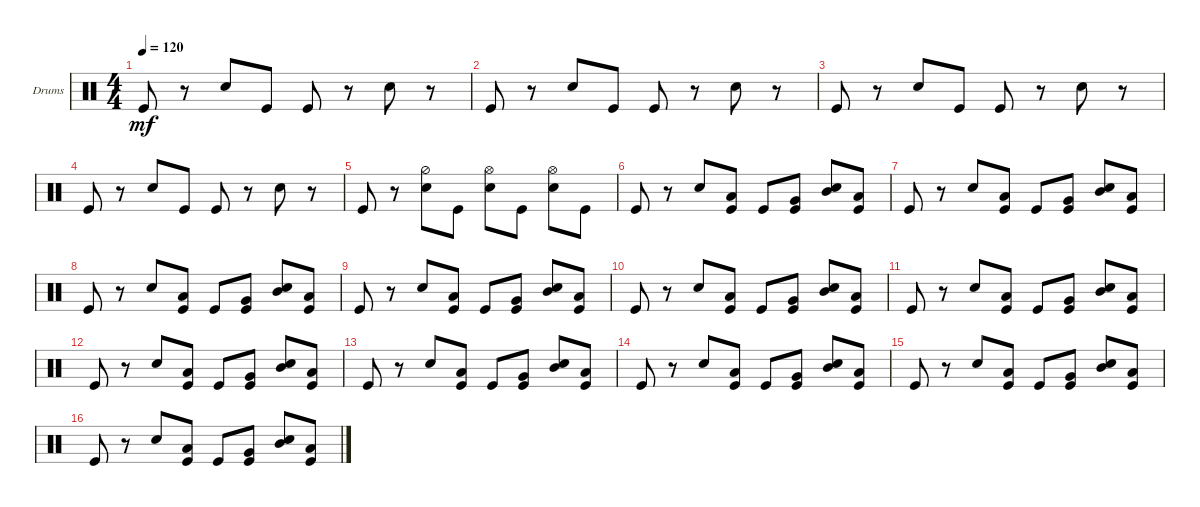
\defaultSystemsLayout 4
\bracketExtendMode groupsimilarinstruments
\firstSystemTrackNameOrientation horizontal
\otherSystemsTrackNameOrientation horizontal
\track ("Drumkit" "Drums") {instrument percussion}
\staff {score}
\articulation defaults
\ts (4 4)
\tempo 120
\clef neutral
\ks c "Kick (hit)".8{dy mf}
r.8 "Snare (hit) 2".8 "Kick (hit)".8 "Kick (hit)".8 r.8 "Snare (hit) 2".8 r.8 |
"Kick (hit)".8 r.8 "Snare (hit) 2".8 "Kick (hit)".8 "Kick (hit)".8 r.8 "Snare (hit) 2".8 r.8 |
"Kick (hit)".8 r.8 "Snare (hit) 2".8 "Kick (hit)".8 "Kick (hit)".8 r.8 "Snare (hit) 2".8 r.8 |
"Kick (hit)".8 r.8 "Snare (hit) 2".8 "Kick (hit)".8 "Kick (hit)".8 r.8 "Snare (hit) 2".8 r.8 |
"Kick (hit)".8 r.8 ("Snare (hit) 2" "Hi-Hat (half)").8 "Kick (hit)".8 ("Snare (hit) 2" "Hi-Hat (open)").8 "Kick (hit)".8 ("Snare (hit) 2" "Hi-Hat (open)").8 "Kick (hit)".8 |
"Kick (hit)".8 r.8 "Snare (hit) 2".8 ("Kick (hit)" "Low Tom (hit)").8 "Kick (hit)".8 ("Kick (hit)" "Very Low Tom (hit)").8 ("Snare (hit) 2" "Mid Tom (hit)").8 ("Low Tom (hit)" "Kick (hit)").8 |
"Kick (hit)".8 r.8 "Snare (hit) 2".8 ("Kick (hit)" "Low Tom (hit)").8 "Kick (hit)".8 ("Kick (hit)" "Very Low Tom (hit)").8 ("Snare (hit) 2" "Mid Tom (hit)").8 ("Low Tom (hit)" "Kick (hit)").8 |
"Kick (hit)".8 r.8 "Snare (hit) 2".8 ("Kick (hit)" "Low Tom (hit)").8 "Kick (hit)".8 ("Kick (hit)" "Very Low Tom (hit)").8 ("Snare (hit) 2" "Mid Tom (hit)").8 ("Low Tom (hit)" "Kick (hit)").8 |
"Kick (hit)".8 r.8 "Snare (hit) 2".8 ("Kick (hit)" "Low Tom (hit)").8 "Kick (hit)".8 ("Kick (hit)" "Very Low Tom (hit)").8 ("Snare (hit) 2" "Mid Tom (hit)").8 ("Low Tom (hit)" "Kick (hit)").8 |
"Kick (hit)".8 r.8 "Snare (hit) 2".8 ("Kick (hit)" "Low Tom (hit)").8 "Kick (hit)".8 ("Kick (hit)" "Very Low Tom (hit)").8 ("Snare (hit) 2" "Mid Tom (hit)").8 ("Low Tom (hit)" "Kick (hit)").8 |
"Kick (hit)".8 r.8 "Snare (hit) 2".8 ("Kick (hit)" "Low Tom (hit)").8 "Kick (hit)".8 ("Kick (hit)" "Very Low Tom (hit)").8 ("Snare (hit) 2" "Mid Tom (hit)").8 ("Low Tom (hit)" "Kick (hit)").8 |
"Kick (hit)".8 r.8 "Snare (hit) 2".8 ("Kick (hit)" "Low Tom (hit)").8 "Kick (hit)".8 ("Kick (hit)" "Very Low Tom (hit)").8 ("Snare (hit) 2" "Mid Tom (hit)").8 ("Low Tom (hit)" "Kick (hit)").8 |
"Kick (hit)".8 r.8 "Snare (hit) 2".8 ("Kick (hit)" "Low Tom (hit)").8 "Kick (hit)".8 ("Kick (hit)" "Very Low Tom (hit)").8 ("Snare (hit) 2" "Mid Tom (hit)").8 ("Low Tom (hit)" "Kick (hit)").8 |
"Kick (hit)".8 r.8 "Snare (hit) 2".8 ("Kick (hit)" "Low Tom (hit)").8 "Kick (hit)".8 ("Kick (hit)" "Very Low Tom (hit)").8 ("Snare (hit) 2" "Mid Tom (hit)").8 ("Low Tom (hit)" "Kick (hit)").8 |
"Kick (hit)".8 r.8 "Snare (hit) 2".8 ("Kick (hit)" "Low Tom (hit)").8 "Kick (hit)".8 ("Kick (hit)" "Very Low Tom (hit)").8 ("Snare (hit) 2" "Mid Tom (hit)").8 ("Low Tom (hit)" "Kick (hit)").8 |
"Kick (hit)".8 r.8 "Snare (hit) 2".8 ("Kick (hit)" "Low Tom (hit)").8 "Kick (hit)".8 ("Kick (hit)" "Very Low Tom (hit)").8 ("Snare (hit) 2" "Mid Tom (hit)").8 ("Low Tom (hit)" "Kick (hit)").8
